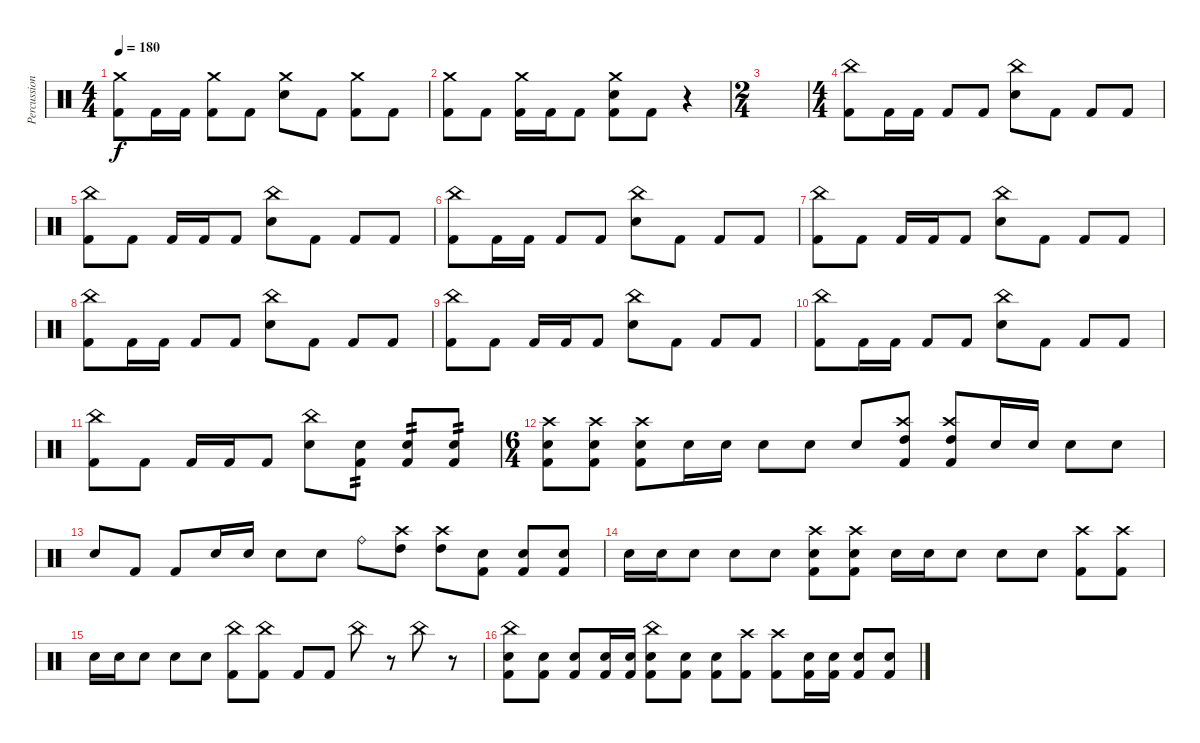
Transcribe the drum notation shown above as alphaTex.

\track ("Percussion" "Percussion") {instrument percussion}
\staff {score}
\articulation defaults
\ts (4 4)
\tempo 180
\clef neutral
\ks c
("Crash medium (hit)" "Kick (hit) 2").8{dy f} "Kick (hit) 2".16 "Kick (hit) 2".16 ("Crash medium (hit)" "Kick (hit) 2").8 "Kick (hit) 2".8 ("Electric Snare (hit)" "Crash medium (hit)").8 "Kick (hit) 2".8 ("Crash medium (hit)" "Kick (hit) 2").8 "Kick (hit) 2".8 |
("Crash medium (hit)" "Kick (hit) 2").8 "Kick (hit) 2".8 ("Crash medium (hit)" "Kick (hit) 2").16 "Kick (hit) 2".16 "Kick (hit) 2".8 ("Electric Snare (hit)" "Crash medium (hit)" "Kick (hit) 2").8 "Kick (hit) 2".8 r.4 |
\ts (2 4)
|
\ts (4 4)
("China (hit)" "Kick (hit) 2").8 "Kick (hit) 2".16 "Kick (hit) 2".16 "Kick (hit) 2".8 "Kick (hit) 2".8 ("Electric Snare (hit)" "China (hit)").8 "Kick (hit) 2".8 "Kick (hit) 2".8 "Kick (hit) 2".8 |
("China (hit)" "Kick (hit) 2").8 "Kick (hit) 2".8 "Kick (hit) 2".16 "Kick (hit) 2".16 "Kick (hit) 2".8 ("Electric Snare (hit)" "China (hit)").8 "Kick (hit) 2".8 "Kick (hit) 2".8 "Kick (hit) 2".8 |
("China (hit)" "Kick (hit) 2").8 "Kick (hit) 2".16 "Kick (hit) 2".16 "Kick (hit) 2".8 "Kick (hit) 2".8 ("Electric Snare (hit)" "China (hit)").8 "Kick (hit) 2".8 "Kick (hit) 2".8 "Kick (hit) 2".8 |
("China (hit)" "Kick (hit) 2").8 "Kick (hit) 2".8 "Kick (hit) 2".16 "Kick (hit) 2".16 "Kick (hit) 2".8 ("Electric Snare (hit)" "China (hit)").8 "Kick (hit) 2".8 "Kick (hit) 2".8 "Kick (hit) 2".8 |
("China (hit)" "Kick (hit) 2").8 "Kick (hit) 2".16 "Kick (hit) 2".16 "Kick (hit) 2".8 "Kick (hit) 2".8 ("Electric Snare (hit)" "China (hit)").8 "Kick (hit) 2".8 "Kick (hit) 2".8 "Kick (hit) 2".8 |
("China (hit)" "Kick (hit) 2").8 "Kick (hit) 2".8 "Kick (hit) 2".16 "Kick (hit) 2".16 "Kick (hit) 2".8 ("Electric Snare (hit)" "China (hit)").8 "Kick (hit) 2".8 "Kick (hit) 2".8 "Kick (hit) 2".8 |
("China (hit)" "Kick (hit) 2").8 "Kick (hit) 2".16 "Kick (hit) 2".16 "Kick (hit) 2".8 "Kick (hit) 2".8 ("Electric Snare (hit)" "China (hit)").8 "Kick (hit) 2".8 "Kick (hit) 2".8 "Kick (hit) 2".8 |
("China (hit)" "Kick (hit) 2").8 "Kick (hit) 2".8 "Kick (hit) 2".16 "Kick (hit) 2".16 "Kick (hit) 2".8 ("Electric Snare (hit)" "China (hit)").8 ("Electric Snare (hit)" "Kick (hit) 2").8{tp 2} ("Electric Snare (hit)" "Kick (hit) 2").8{tp 2} ("Electric Snare (hit)" "Kick (hit) 2").8{tp 2} |
\ts (6 4)
("Crash high (hit)" "Electric Snare (hit)" "Kick (hit) 2").8 ("Crash high (hit)" "Electric Snare (hit)" "Kick (hit) 2").8 ("Crash high (hit)" "Electric Snare (hit)" "Kick (hit) 2").8 "Electric Snare (hit)".16 "Electric Snare (hit)".16 "Electric Snare (hit)".8 "Electric Snare (hit)".8 "Electric Snare (hit)".8 ("Crash high (hit)" "High Tom (hit)" "Kick (hit) 2").8 ("Crash high (hit)" "High Tom (hit)" "Kick (hit) 2").8 "Electric Snare (hit)".16 "Electric Snare (hit)".16 "Electric Snare (hit)".8 "Electric Snare (hit)".8 |
"Electric Snare (hit)".8 "Kick (hit) 2".8 "Kick (hit) 2".8 "Electric Snare (hit)".16 "Electric Snare (hit)".16 "Electric Snare (hit)".8 "Electric Snare (hit)".8 "Ride (bell)".8 ("Crash high (hit)" "High Tom (hit)").8 ("Crash high (hit)" "High Tom (hit)").8 ("Electric Snare (hit)" "Kick (hit) 2").8 ("Electric Snare (hit)" "Kick (hit) 2").8 ("Electric Snare (hit)" "Kick (hit) 2").8 |
"Electric Snare (hit)".16 "Electric Snare (hit)".16 "Electric Snare (hit)".8 "Electric Snare (hit)".8 "Electric Snare (hit)".8 ("Crash high (hit)" "Electric Snare (hit)" "Kick (hit) 2").8 ("Crash high (hit)" "Electric Snare (hit)" "Kick (hit) 2").8 "Electric Snare (hit)".16 "Electric Snare (hit)".16 "Electric Snare (hit)".8 "Electric Snare (hit)".8 "Electric Snare (hit)".8 ("Crash high (hit)" "Kick (hit) 2").8 ("Crash high (hit)" "Kick (hit) 2").8 |
"Electric Snare (hit)".16 "Electric Snare (hit)".16 "Electric Snare (hit)".8 "Electric Snare (hit)".8 "Electric Snare (hit)".8 ("China (hit)" "Kick (hit) 2").8 ("China (hit)" "Kick (hit) 2").8 "Kick (hit) 2".8 "Kick (hit) 2".8 "China (hit)".8 r.8 "China (hit)".8 r.8 |
("China (hit)" "Electric Snare (hit)" "Kick (hit) 2").8 ("Electric Snare (hit)" "Kick (hit) 2").8 ("Electric Snare (hit)" "Kick (hit) 2").8 ("Electric Snare (hit)" "Kick (hit) 2").16 ("Electric Snare (hit)" "Kick (hit) 2").16 ("China (hit)" "Electric Snare (hit)" "Kick (hit) 2").8 ("Electric Snare (hit)" "Kick (hit) 2").8 ("Electric Snare (hit)" "Kick (hit) 2").8 ("Crash high (hit)" "Kick (hit) 2").8 ("Crash high (hit)" "Kick (hit) 2").8 ("Electric Snare (hit)" "Kick (hit) 2").16 ("Electric Snare (hit)" "Kick (hit) 2").16 ("Electric Snare (hit)" "Kick (hit) 2").8 ("Electric Snare (hit)" "Kick (hit) 2").8
